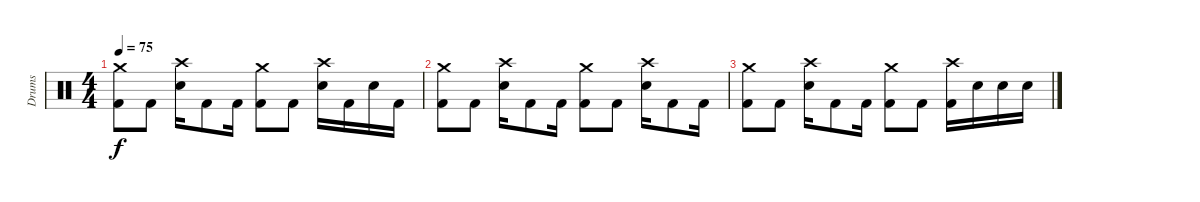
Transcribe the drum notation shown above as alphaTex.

\track ("Drums" "Drums") {instrument percussion}
\staff {score}
\articulation defaults
\ts (4 4)
\tempo 75
\clef neutral
\ks c
("Crash medium (hit)" "Kick (hit) 2").8{dy f} "Kick (hit) 2".8 ("Crash high (hit)" "Snare (hit) 2").16 "Kick (hit) 2".8 "Kick (hit) 2".16 ("Crash medium (hit)" "Kick (hit) 2").8 "Kick (hit) 2".8 ("Crash high (hit)" "Snare (hit) 2").16 "Kick (hit) 2".16 "Snare (hit) 2".16 "Kick (hit) 2".16 |
("Crash medium (hit)" "Kick (hit) 2").8 "Kick (hit) 2".8 ("Crash high (hit)" "Snare (hit) 2").16 "Kick (hit) 2".8 "Kick (hit) 2".16 ("Crash medium (hit)" "Kick (hit) 2").8 "Kick (hit) 2".8 ("Crash high (hit)" "Snare (hit) 2").16 "Kick (hit) 2".8 "Kick (hit) 2".16 |
("Crash medium (hit)" "Kick (hit) 2").8 "Kick (hit) 2".8 ("Crash high (hit)" "Snare (hit) 2").16 "Kick (hit) 2".8 "Kick (hit) 2".16 ("Crash medium (hit)" "Kick (hit) 2").8 "Kick (hit) 2".8 ("Crash high (hit)" "Kick (hit) 2").16 "Snare (hit) 2".16 "Snare (hit) 2".16 "Snare (hit) 2".16
